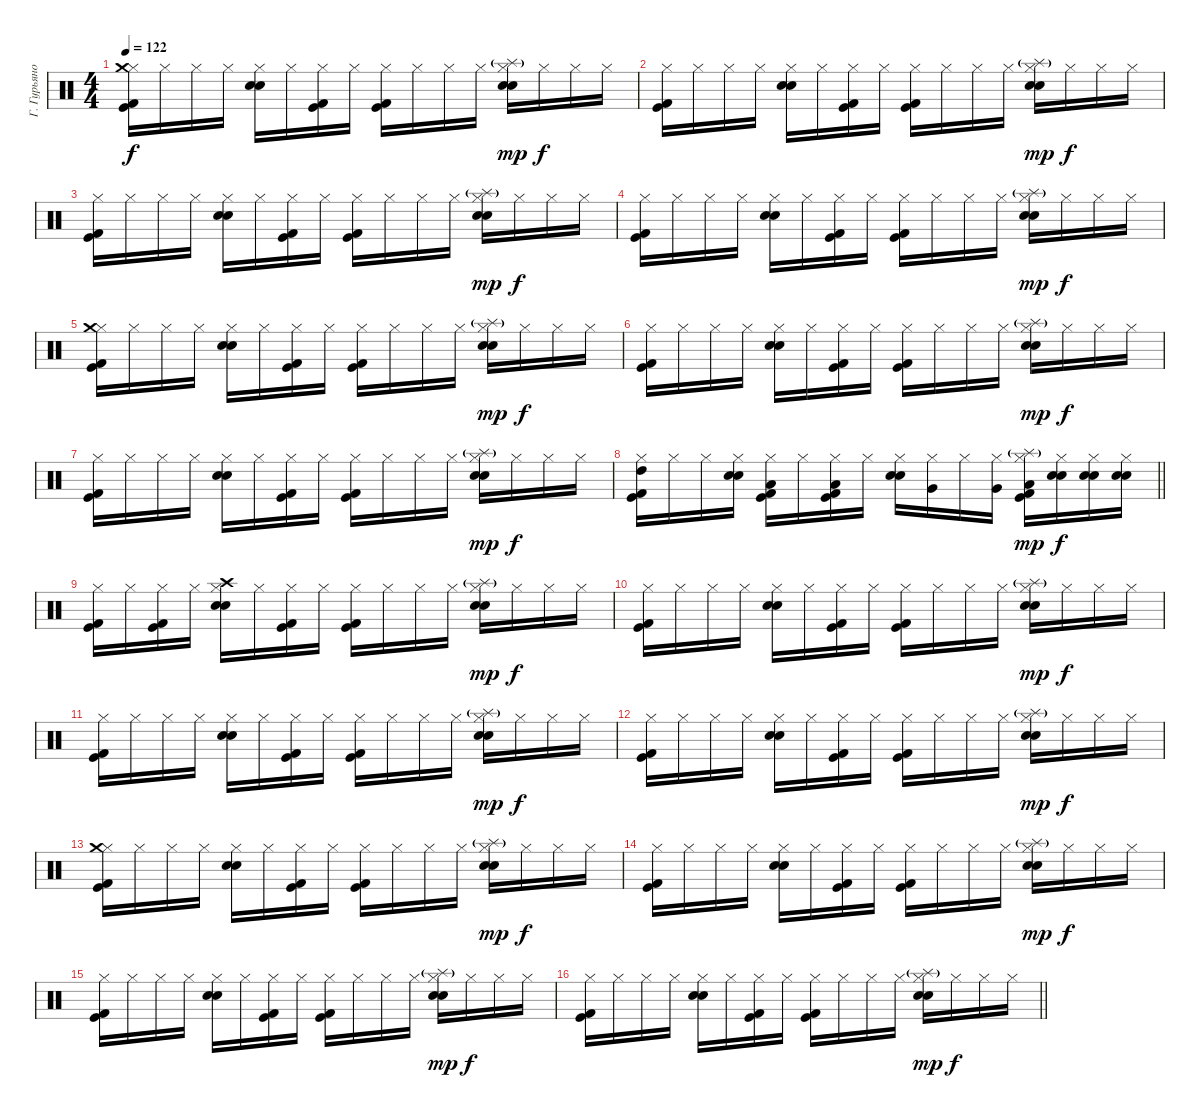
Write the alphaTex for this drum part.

\track ("Г. Гурьянов" "Г. Гурьяно") {instrument percussion}
\staff
\articulation defaults
\ts (4 4)
\tempo 122
\clef neutral
\ks c
("Hi-Hat (closed)" "Crash medium (hit)" "Kick (hit)" "Kick (hit) 2").16{dy f} "Hi-Hat (closed)".16 "Hi-Hat (closed)".16 "Hi-Hat (closed)".16 ("Hi-Hat (closed)" "Electric Snare (hit)" "Snare (hit) 2").16 "Hi-Hat (closed)".16 ("Hi-Hat (closed)" "Kick (hit)" "Kick (hit) 2").16 "Hi-Hat (closed)".16 ("Hi-Hat (closed)" "Kick (hit)" "Kick (hit) 2").16 "Hi-Hat (closed)".16 "Hi-Hat (closed)".16 "Hi-Hat (closed)".16 ("Hi-Hat (closed)" "Electric Snare (hit)" "Snare (hit) 2" "Splash (hit)"{g}).16{dy mp} "Hi-Hat (closed)".16{dy f} "Hi-Hat (closed)".16 "Hi-Hat (closed)".16 |
("Hi-Hat (closed)" "Kick (hit)" "Kick (hit) 2").16 "Hi-Hat (closed)".16 "Hi-Hat (closed)".16 "Hi-Hat (closed)".16 ("Hi-Hat (closed)" "Electric Snare (hit)" "Snare (hit) 2").16 "Hi-Hat (closed)".16 ("Hi-Hat (closed)" "Kick (hit)" "Kick (hit) 2").16 "Hi-Hat (closed)".16 ("Hi-Hat (closed)" "Kick (hit)" "Kick (hit) 2").16 "Hi-Hat (closed)".16 "Hi-Hat (closed)".16 "Hi-Hat (closed)".16 ("Hi-Hat (closed)" "Electric Snare (hit)" "Snare (hit) 2" "Splash (hit)"{g}).16{dy mp} "Hi-Hat (closed)".16{dy f} "Hi-Hat (closed)".16 "Hi-Hat (closed)".16 |
("Hi-Hat (closed)" "Kick (hit)" "Kick (hit) 2").16 "Hi-Hat (closed)".16 "Hi-Hat (closed)".16 "Hi-Hat (closed)".16 ("Hi-Hat (closed)" "Electric Snare (hit)" "Snare (hit) 2").16 "Hi-Hat (closed)".16 ("Hi-Hat (closed)" "Kick (hit)" "Kick (hit) 2").16 "Hi-Hat (closed)".16 ("Hi-Hat (closed)" "Kick (hit)" "Kick (hit) 2").16 "Hi-Hat (closed)".16 "Hi-Hat (closed)".16 "Hi-Hat (closed)".16 ("Hi-Hat (closed)" "Electric Snare (hit)" "Snare (hit) 2" "Splash (hit)"{g}).16{dy mp} "Hi-Hat (closed)".16{dy f} "Hi-Hat (closed)".16 "Hi-Hat (closed)".16 |
("Hi-Hat (closed)" "Kick (hit)" "Kick (hit) 2").16 "Hi-Hat (closed)".16 "Hi-Hat (closed)".16 "Hi-Hat (closed)".16 ("Hi-Hat (closed)" "Electric Snare (hit)" "Snare (hit) 2").16 "Hi-Hat (closed)".16 ("Hi-Hat (closed)" "Kick (hit)" "Kick (hit) 2").16 "Hi-Hat (closed)".16 ("Hi-Hat (closed)" "Kick (hit)" "Kick (hit) 2").16 "Hi-Hat (closed)".16 "Hi-Hat (closed)".16 "Hi-Hat (closed)".16 ("Hi-Hat (closed)" "Electric Snare (hit)" "Snare (hit) 2" "Splash (hit)"{g}).16{dy mp} "Hi-Hat (closed)".16{dy f} "Hi-Hat (closed)".16 "Hi-Hat (closed)".16 |
("Hi-Hat (closed)" "Crash medium (hit)" "Kick (hit)" "Kick (hit) 2").16 "Hi-Hat (closed)".16 "Hi-Hat (closed)".16 "Hi-Hat (closed)".16 ("Hi-Hat (closed)" "Electric Snare (hit)" "Snare (hit) 2").16 "Hi-Hat (closed)".16 ("Hi-Hat (closed)" "Kick (hit)" "Kick (hit) 2").16 "Hi-Hat (closed)".16 ("Hi-Hat (closed)" "Kick (hit)" "Kick (hit) 2").16 "Hi-Hat (closed)".16 "Hi-Hat (closed)".16 "Hi-Hat (closed)".16 ("Hi-Hat (closed)" "Electric Snare (hit)" "Snare (hit) 2" "Splash (hit)"{g}).16{dy mp} "Hi-Hat (closed)".16{dy f} "Hi-Hat (closed)".16 "Hi-Hat (closed)".16 |
("Hi-Hat (closed)" "Kick (hit)" "Kick (hit) 2").16 "Hi-Hat (closed)".16 "Hi-Hat (closed)".16 "Hi-Hat (closed)".16 ("Hi-Hat (closed)" "Electric Snare (hit)" "Snare (hit) 2").16 "Hi-Hat (closed)".16 ("Hi-Hat (closed)" "Kick (hit)" "Kick (hit) 2").16 "Hi-Hat (closed)".16 ("Hi-Hat (closed)" "Kick (hit)" "Kick (hit) 2").16 "Hi-Hat (closed)".16 "Hi-Hat (closed)".16 "Hi-Hat (closed)".16 ("Hi-Hat (closed)" "Electric Snare (hit)" "Snare (hit) 2" "Splash (hit)"{g}).16{dy mp} "Hi-Hat (closed)".16{dy f} "Hi-Hat (closed)".16 "Hi-Hat (closed)".16 |
("Hi-Hat (closed)" "Kick (hit)" "Kick (hit) 2").16 "Hi-Hat (closed)".16 "Hi-Hat (closed)".16 "Hi-Hat (closed)".16 ("Hi-Hat (closed)" "Electric Snare (hit)" "Snare (hit) 2").16 "Hi-Hat (closed)".16 ("Hi-Hat (closed)" "Kick (hit)" "Kick (hit) 2").16 "Hi-Hat (closed)".16 ("Hi-Hat (closed)" "Kick (hit)" "Kick (hit) 2").16 "Hi-Hat (closed)".16 "Hi-Hat (closed)".16 "Hi-Hat (closed)".16 ("Hi-Hat (closed)" "Electric Snare (hit)" "Snare (hit) 2" "Splash (hit)"{g}).16{dy mp} "Hi-Hat (closed)".16{dy f} "Hi-Hat (closed)".16 "Hi-Hat (closed)".16 |
\barLineRight lightlight
("Hi-Hat (closed)" "High Tom (hit)" "Kick (hit)" "Kick (hit) 2").16 "Hi-Hat (closed)".16 "Hi-Hat (closed)".16 ("Hi-Hat (closed)" "Electric Snare (hit)" "Snare (hit) 2").16 ("Hi-Hat (closed)" "Low Tom (hit)" "Kick (hit)" "Kick (hit) 2").16 "Hi-Hat (closed)".16 ("Hi-Hat (closed)" "Low Tom (hit)" "Kick (hit)" "Kick (hit) 2").16 "Hi-Hat (closed)".16 ("Hi-Hat (closed)" "Electric Snare (hit)" "Snare (hit) 2").16 ("Hi-Hat (closed)" "Very Low Tom (hit)").16 "Hi-Hat (closed)".16 ("Hi-Hat (closed)" "Very Low Tom (hit)").16 ("Hi-Hat (closed)" "Low Floor Tom (hit)" "Splash (hit)"{g} "Kick (hit) 2" "Kick (hit)").16{dy mp} ("Hi-Hat (closed)" "Electric Snare (hit)" "Snare (hit) 2").16{dy f} ("Hi-Hat (closed)" "Electric Snare (hit)" "Snare (hit) 2").16 ("Hi-Hat (closed)" "Electric Snare (hit)" "Snare (hit) 2").16 |
("Hi-Hat (closed)" "Kick (hit)" "Kick (hit) 2").16 "Hi-Hat (closed)".16 ("Hi-Hat (closed)" "Kick (hit)" "Kick (hit) 2").16 "Hi-Hat (closed)".16 ("Hi-Hat (closed)" "Electric Snare (hit)" "Snare (hit) 2" "Crash high (hit)").16 "Hi-Hat (closed)".16 ("Hi-Hat (closed)" "Kick (hit)" "Kick (hit) 2").16 "Hi-Hat (closed)".16 ("Hi-Hat (closed)" "Kick (hit)" "Kick (hit) 2").16 "Hi-Hat (closed)".16 "Hi-Hat (closed)".16 "Hi-Hat (closed)".16 ("Hi-Hat (closed)" "Electric Snare (hit)" "Snare (hit) 2" "Splash (hit)"{g}).16{dy mp} "Hi-Hat (closed)".16{dy f} "Hi-Hat (closed)".16 "Hi-Hat (closed)".16 |
("Hi-Hat (closed)" "Kick (hit)" "Kick (hit) 2").16 "Hi-Hat (closed)".16 "Hi-Hat (closed)".16 "Hi-Hat (closed)".16 ("Hi-Hat (closed)" "Electric Snare (hit)" "Snare (hit) 2").16 "Hi-Hat (closed)".16 ("Hi-Hat (closed)" "Kick (hit)" "Kick (hit) 2").16 "Hi-Hat (closed)".16 ("Hi-Hat (closed)" "Kick (hit)" "Kick (hit) 2").16 "Hi-Hat (closed)".16 "Hi-Hat (closed)".16 "Hi-Hat (closed)".16 ("Hi-Hat (closed)" "Electric Snare (hit)" "Snare (hit) 2" "Splash (hit)"{g}).16{dy mp} "Hi-Hat (closed)".16{dy f} "Hi-Hat (closed)".16 "Hi-Hat (closed)".16 |
("Hi-Hat (closed)" "Kick (hit)" "Kick (hit) 2").16 "Hi-Hat (closed)".16 "Hi-Hat (closed)".16 "Hi-Hat (closed)".16 ("Hi-Hat (closed)" "Electric Snare (hit)" "Snare (hit) 2").16 "Hi-Hat (closed)".16 ("Hi-Hat (closed)" "Kick (hit)" "Kick (hit) 2").16 "Hi-Hat (closed)".16 ("Hi-Hat (closed)" "Kick (hit)" "Kick (hit) 2").16 "Hi-Hat (closed)".16 "Hi-Hat (closed)".16 "Hi-Hat (closed)".16 ("Hi-Hat (closed)" "Electric Snare (hit)" "Snare (hit) 2" "Splash (hit)"{g}).16{dy mp} "Hi-Hat (closed)".16{dy f} "Hi-Hat (closed)".16 "Hi-Hat (closed)".16 |
("Hi-Hat (closed)" "Kick (hit)" "Kick (hit) 2").16 "Hi-Hat (closed)".16 "Hi-Hat (closed)".16 "Hi-Hat (closed)".16 ("Hi-Hat (closed)" "Electric Snare (hit)" "Snare (hit) 2").16 "Hi-Hat (closed)".16 ("Hi-Hat (closed)" "Kick (hit)" "Kick (hit) 2").16 "Hi-Hat (closed)".16 ("Hi-Hat (closed)" "Kick (hit)" "Kick (hit) 2").16 "Hi-Hat (closed)".16 "Hi-Hat (closed)".16 "Hi-Hat (closed)".16 ("Hi-Hat (closed)" "Electric Snare (hit)" "Snare (hit) 2" "Splash (hit)"{g}).16{dy mp} "Hi-Hat (closed)".16{dy f} "Hi-Hat (closed)".16 "Hi-Hat (closed)".16 |
("Hi-Hat (closed)" "Crash medium (hit)" "Kick (hit)" "Kick (hit) 2").16 "Hi-Hat (closed)".16 "Hi-Hat (closed)".16 "Hi-Hat (closed)".16 ("Hi-Hat (closed)" "Electric Snare (hit)" "Snare (hit) 2").16 "Hi-Hat (closed)".16 ("Hi-Hat (closed)" "Kick (hit)" "Kick (hit) 2").16 "Hi-Hat (closed)".16 ("Hi-Hat (closed)" "Kick (hit)" "Kick (hit) 2").16 "Hi-Hat (closed)".16 "Hi-Hat (closed)".16 "Hi-Hat (closed)".16 ("Hi-Hat (closed)" "Electric Snare (hit)" "Snare (hit) 2" "Splash (hit)"{g}).16{dy mp} "Hi-Hat (closed)".16{dy f} "Hi-Hat (closed)".16 "Hi-Hat (closed)".16 |
("Hi-Hat (closed)" "Kick (hit)" "Kick (hit) 2").16 "Hi-Hat (closed)".16 "Hi-Hat (closed)".16 "Hi-Hat (closed)".16 ("Hi-Hat (closed)" "Electric Snare (hit)" "Snare (hit) 2").16 "Hi-Hat (closed)".16 ("Hi-Hat (closed)" "Kick (hit)" "Kick (hit) 2").16 "Hi-Hat (closed)".16 ("Hi-Hat (closed)" "Kick (hit)" "Kick (hit) 2").16 "Hi-Hat (closed)".16 "Hi-Hat (closed)".16 "Hi-Hat (closed)".16 ("Hi-Hat (closed)" "Electric Snare (hit)" "Snare (hit) 2" "Splash (hit)"{g}).16{dy mp} "Hi-Hat (closed)".16{dy f} "Hi-Hat (closed)".16 "Hi-Hat (closed)".16 |
("Hi-Hat (closed)" "Kick (hit)" "Kick (hit) 2").16 "Hi-Hat (closed)".16 "Hi-Hat (closed)".16 "Hi-Hat (closed)".16 ("Hi-Hat (closed)" "Electric Snare (hit)" "Snare (hit) 2").16 "Hi-Hat (closed)".16 ("Hi-Hat (closed)" "Kick (hit)" "Kick (hit) 2").16 "Hi-Hat (closed)".16 ("Hi-Hat (closed)" "Kick (hit)" "Kick (hit) 2").16 "Hi-Hat (closed)".16 "Hi-Hat (closed)".16 "Hi-Hat (closed)".16 ("Hi-Hat (closed)" "Electric Snare (hit)" "Snare (hit) 2" "Splash (hit)"{g}).16{dy mp} "Hi-Hat (closed)".16{dy f} "Hi-Hat (closed)".16 "Hi-Hat (closed)".16 |
\barLineRight lightlight
("Hi-Hat (closed)" "Kick (hit)" "Kick (hit) 2").16 "Hi-Hat (closed)".16 "Hi-Hat (closed)".16 "Hi-Hat (closed)".16 ("Hi-Hat (closed)" "Electric Snare (hit)" "Snare (hit) 2").16 "Hi-Hat (closed)".16 ("Hi-Hat (closed)" "Kick (hit)" "Kick (hit) 2").16 "Hi-Hat (closed)".16 ("Hi-Hat (closed)" "Kick (hit)" "Kick (hit) 2").16 "Hi-Hat (closed)".16 "Hi-Hat (closed)".16 "Hi-Hat (closed)".16 ("Hi-Hat (closed)" "Electric Snare (hit)" "Snare (hit) 2" "Splash (hit)"{g}).16{dy mp} "Hi-Hat (closed)".16{dy f} "Hi-Hat (closed)".16 "Hi-Hat (closed)".16
